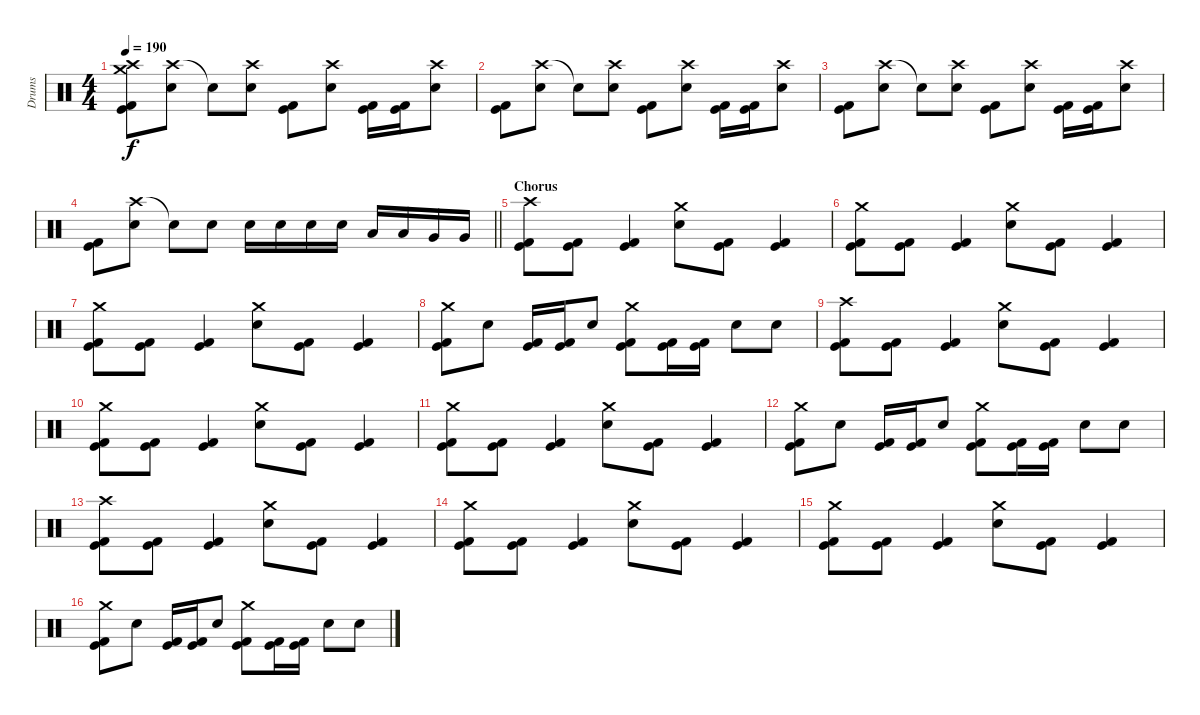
\track ("Drums" "Drums") {instrument percussion}
\staff {score}
\articulation defaults
\ts (4 4)
\tempo 190
\clef neutral
\ks c
("Crash medium (hit)" "Crash high (hit)" "Kick (hit)" "Kick (hit) 2").8{dy f} ("Crash high (hit)" "Electric Snare (hit)").8 "Snare (hit)"{t}.8 ("Crash high (hit)" "Electric Snare (hit)").8 ("Kick (hit)" "Kick (hit) 2").8 ("Crash high (hit)" "Electric Snare (hit)").8 ("Kick (hit)" "Kick (hit) 2").16 ("Kick (hit)" "Kick (hit) 2").16 ("Crash high (hit)" "Electric Snare (hit)").8 |
("Kick (hit)" "Kick (hit) 2").8 ("Crash high (hit)" "Electric Snare (hit)").8 "Snare (hit)"{t}.8 ("Crash high (hit)" "Electric Snare (hit)").8 ("Kick (hit)" "Kick (hit) 2").8 ("Crash high (hit)" "Electric Snare (hit)").8 ("Kick (hit)" "Kick (hit) 2").16 ("Kick (hit)" "Kick (hit) 2").16 ("Crash high (hit)" "Electric Snare (hit)").8 |
("Kick (hit)" "Kick (hit) 2").8 ("Crash high (hit)" "Electric Snare (hit)").8 "Snare (hit)"{t}.8 ("Crash high (hit)" "Electric Snare (hit)").8 ("Kick (hit)" "Kick (hit) 2").8 ("Crash high (hit)" "Electric Snare (hit)").8 ("Kick (hit)" "Kick (hit) 2").16 ("Kick (hit)" "Kick (hit) 2").16 ("Crash high (hit)" "Electric Snare (hit)").8 |
\barLineRight lightlight
("Kick (hit)" "Kick (hit) 2").8 ("Crash high (hit)" "Electric Snare (hit)").8 "Snare (hit)"{t}.8 "Electric Snare (hit)".8 "Electric Snare (hit)".16 "Electric Snare (hit)".16 "Electric Snare (hit)".16 "Electric Snare (hit)".16 "Low Tom (hit)".16 "Low Tom (hit)".16 "Very Low Tom (hit)".16 "Very Low Tom (hit)".16 |
\section ("" "Chorus")
("Crash high (hit)" "Kick (hit)" "Kick (hit) 2").8 ("Kick (hit)" "Kick (hit) 2").8 ("Kick (hit)" "Kick (hit) 2").4 ("Crash medium (hit)" "Electric Snare (hit)").8 ("Kick (hit)" "Kick (hit) 2").8 ("Kick (hit)" "Kick (hit) 2").4 |
("Crash medium (hit)" "Kick (hit)" "Kick (hit) 2").8 ("Kick (hit)" "Kick (hit) 2").8 ("Kick (hit)" "Kick (hit) 2").4 ("Crash medium (hit)" "Electric Snare (hit)").8 ("Kick (hit)" "Kick (hit) 2").8 ("Kick (hit)" "Kick (hit) 2").4 |
("Crash medium (hit)" "Kick (hit)" "Kick (hit) 2").8 ("Kick (hit)" "Kick (hit) 2").8 ("Kick (hit)" "Kick (hit) 2").4 ("Crash medium (hit)" "Electric Snare (hit)").8 ("Kick (hit)" "Kick (hit) 2").8 ("Kick (hit)" "Kick (hit) 2").4 |
("Crash medium (hit)" "Kick (hit)" "Kick (hit) 2").8 "Electric Snare (hit)".8 ("Kick (hit)" "Kick (hit) 2").16 ("Kick (hit)" "Kick (hit) 2").16 "Electric Snare (hit)".8 ("Crash medium (hit)" "Kick (hit)" "Kick (hit) 2").8 ("Kick (hit)" "Kick (hit) 2").16 ("Kick (hit)" "Kick (hit) 2").16 "Electric Snare (hit)".8 "Electric Snare (hit)".8 |
("Crash high (hit)" "Kick (hit)" "Kick (hit) 2").8 ("Kick (hit)" "Kick (hit) 2").8 ("Kick (hit)" "Kick (hit) 2").4 ("Crash medium (hit)" "Electric Snare (hit)").8 ("Kick (hit)" "Kick (hit) 2").8 ("Kick (hit)" "Kick (hit) 2").4 |
("Crash medium (hit)" "Kick (hit)" "Kick (hit) 2").8 ("Kick (hit)" "Kick (hit) 2").8 ("Kick (hit)" "Kick (hit) 2").4 ("Crash medium (hit)" "Electric Snare (hit)").8 ("Kick (hit)" "Kick (hit) 2").8 ("Kick (hit)" "Kick (hit) 2").4 |
("Crash medium (hit)" "Kick (hit)" "Kick (hit) 2").8 ("Kick (hit)" "Kick (hit) 2").8 ("Kick (hit)" "Kick (hit) 2").4 ("Crash medium (hit)" "Electric Snare (hit)").8 ("Kick (hit)" "Kick (hit) 2").8 ("Kick (hit)" "Kick (hit) 2").4 |
("Crash medium (hit)" "Kick (hit)" "Kick (hit) 2").8 "Electric Snare (hit)".8 ("Kick (hit)" "Kick (hit) 2").16 ("Kick (hit)" "Kick (hit) 2").16 "Electric Snare (hit)".8 ("Crash medium (hit)" "Kick (hit)" "Kick (hit) 2").8 ("Kick (hit)" "Kick (hit) 2").16 ("Kick (hit)" "Kick (hit) 2").16 "Electric Snare (hit)".8 "Electric Snare (hit)".8 |
("Crash high (hit)" "Kick (hit)" "Kick (hit) 2").8 ("Kick (hit)" "Kick (hit) 2").8 ("Kick (hit)" "Kick (hit) 2").4 ("Crash medium (hit)" "Electric Snare (hit)").8 ("Kick (hit)" "Kick (hit) 2").8 ("Kick (hit)" "Kick (hit) 2").4 |
("Crash medium (hit)" "Kick (hit)" "Kick (hit) 2").8 ("Kick (hit)" "Kick (hit) 2").8 ("Kick (hit)" "Kick (hit) 2").4 ("Crash medium (hit)" "Electric Snare (hit)").8 ("Kick (hit)" "Kick (hit) 2").8 ("Kick (hit)" "Kick (hit) 2").4 |
("Crash medium (hit)" "Kick (hit)" "Kick (hit) 2").8 ("Kick (hit)" "Kick (hit) 2").8 ("Kick (hit)" "Kick (hit) 2").4 ("Crash medium (hit)" "Electric Snare (hit)").8 ("Kick (hit)" "Kick (hit) 2").8 ("Kick (hit)" "Kick (hit) 2").4 |
("Crash medium (hit)" "Kick (hit)" "Kick (hit) 2").8 "Electric Snare (hit)".8 ("Kick (hit)" "Kick (hit) 2").16 ("Kick (hit)" "Kick (hit) 2").16 "Electric Snare (hit)".8 ("Crash medium (hit)" "Kick (hit)" "Kick (hit) 2").8 ("Kick (hit)" "Kick (hit) 2").16 ("Kick (hit)" "Kick (hit) 2").16 "Electric Snare (hit)".8 "Electric Snare (hit)".8
